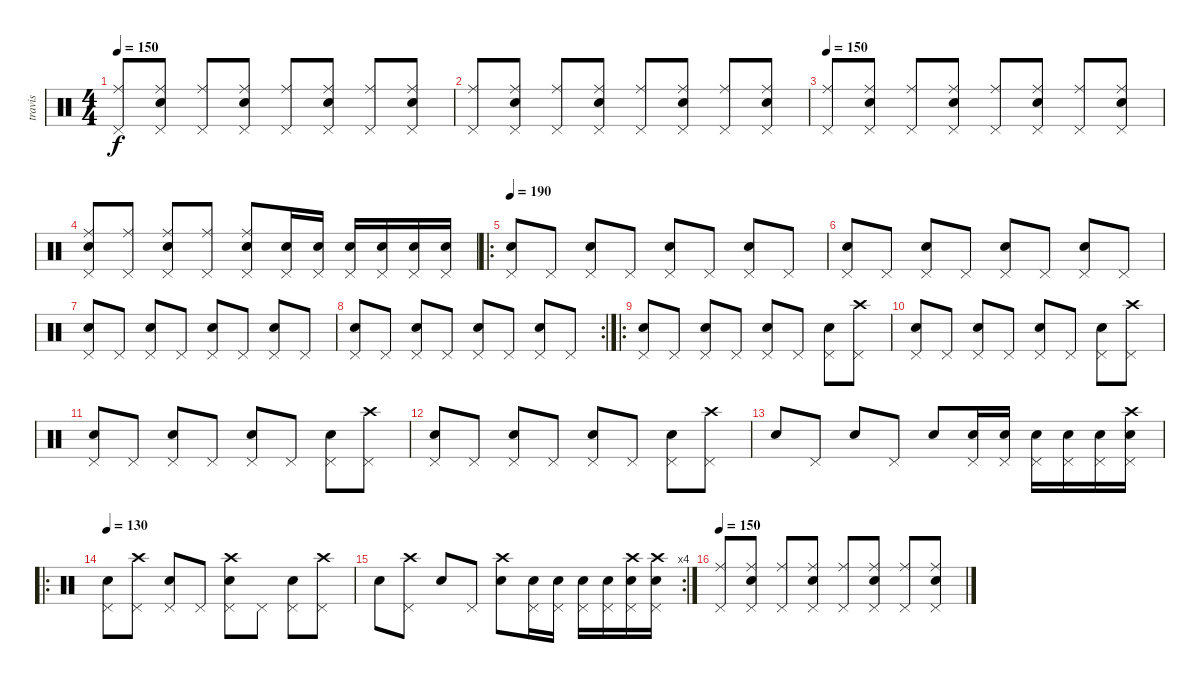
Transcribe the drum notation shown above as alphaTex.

\track ("travis" "travis") {instrument percussion}
\staff {score}
\articulation defaults
\ts (4 4)
\tempo 150
\clef neutral
\ks c
("Pedal Hi-Hat (hit)" "Ride (middle)").8{dy f} ("Pedal Hi-Hat (hit)" "Ride (middle)" "Electric Snare (hit)").8 ("Pedal Hi-Hat (hit)" "Ride (middle)").8 ("Pedal Hi-Hat (hit)" "Ride (middle)" "Electric Snare (hit)").8 ("Pedal Hi-Hat (hit)" "Ride (middle)").8 ("Pedal Hi-Hat (hit)" "Ride (middle)" "Electric Snare (hit)").8 ("Pedal Hi-Hat (hit)" "Ride (middle)").8 ("Pedal Hi-Hat (hit)" "Ride (middle)" "Electric Snare (hit)").8 |
("Pedal Hi-Hat (hit)" "Ride (middle)").8 ("Pedal Hi-Hat (hit)" "Ride (middle)" "Electric Snare (hit)").8 ("Pedal Hi-Hat (hit)" "Ride (middle)").8 ("Pedal Hi-Hat (hit)" "Ride (middle)" "Electric Snare (hit)").8 ("Pedal Hi-Hat (hit)" "Ride (middle)").8 ("Pedal Hi-Hat (hit)" "Ride (middle)" "Electric Snare (hit)").8 ("Pedal Hi-Hat (hit)" "Ride (middle)").8 ("Pedal Hi-Hat (hit)" "Ride (middle)" "Electric Snare (hit)").8 |
\tempo 150
("Pedal Hi-Hat (hit)" "Ride (middle)").8 ("Pedal Hi-Hat (hit)" "Ride (middle)" "Electric Snare (hit)").8 ("Pedal Hi-Hat (hit)" "Ride (middle)").8 ("Pedal Hi-Hat (hit)" "Ride (middle)" "Electric Snare (hit)").8 ("Pedal Hi-Hat (hit)" "Ride (middle)").8 ("Pedal Hi-Hat (hit)" "Ride (middle)" "Electric Snare (hit)").8 ("Pedal Hi-Hat (hit)" "Ride (middle)").8 ("Pedal Hi-Hat (hit)" "Ride (middle)" "Electric Snare (hit)").8 |
("Pedal Hi-Hat (hit)" "Ride (middle)" "Electric Snare (hit)").8 ("Pedal Hi-Hat (hit)" "Ride (middle)").8 ("Pedal Hi-Hat (hit)" "Ride (middle)" "Electric Snare (hit)").8 ("Pedal Hi-Hat (hit)" "Ride (middle)").8 ("Pedal Hi-Hat (hit)" "Ride (middle)" "Electric Snare (hit)").8 ("Pedal Hi-Hat (hit)" "Electric Snare (hit)").16 ("Pedal Hi-Hat (hit)" "Snare (hit) 2").16 ("Pedal Hi-Hat (hit)" "Electric Snare (hit)").16 ("Pedal Hi-Hat (hit)" "Snare (hit) 2").16 ("Pedal Hi-Hat (hit)" "Electric Snare (hit)").16 ("Pedal Hi-Hat (hit)" "Snare (hit) 2").16 |
\ro
\tempo 190
("Pedal Hi-Hat (hit)" "Electric Snare (hit)").8 "Pedal Hi-Hat (hit)".8 ("Pedal Hi-Hat (hit)" "Electric Snare (hit)").8 "Pedal Hi-Hat (hit)".8 ("Pedal Hi-Hat (hit)" "Electric Snare (hit)").8 "Pedal Hi-Hat (hit)".8 ("Pedal Hi-Hat (hit)" "Electric Snare (hit)").8 "Pedal Hi-Hat (hit)".8 |
("Pedal Hi-Hat (hit)" "Electric Snare (hit)").8 "Pedal Hi-Hat (hit)".8 ("Pedal Hi-Hat (hit)" "Electric Snare (hit)").8 "Pedal Hi-Hat (hit)".8 ("Pedal Hi-Hat (hit)" "Electric Snare (hit)").8 "Pedal Hi-Hat (hit)".8 ("Pedal Hi-Hat (hit)" "Electric Snare (hit)").8 "Pedal Hi-Hat (hit)".8 |
("Pedal Hi-Hat (hit)" "Electric Snare (hit)").8 "Pedal Hi-Hat (hit)".8 ("Pedal Hi-Hat (hit)" "Electric Snare (hit)").8 "Pedal Hi-Hat (hit)".8 ("Pedal Hi-Hat (hit)" "Electric Snare (hit)").8 "Pedal Hi-Hat (hit)".8 ("Pedal Hi-Hat (hit)" "Electric Snare (hit)").8 "Pedal Hi-Hat (hit)".8 |
\rc 2
("Pedal Hi-Hat (hit)" "Electric Snare (hit)").8 "Pedal Hi-Hat (hit)".8 ("Pedal Hi-Hat (hit)" "Electric Snare (hit)").8 "Pedal Hi-Hat (hit)".8 ("Pedal Hi-Hat (hit)" "Electric Snare (hit)").8 "Pedal Hi-Hat (hit)".8 ("Pedal Hi-Hat (hit)" "Electric Snare (hit)").8 "Pedal Hi-Hat (hit)".8 |
\ro
("Pedal Hi-Hat (hit)" "Electric Snare (hit)").8 "Pedal Hi-Hat (hit)".8 ("Pedal Hi-Hat (hit)" "Electric Snare (hit)").8 "Pedal Hi-Hat (hit)".8 ("Pedal Hi-Hat (hit)" "Electric Snare (hit)").8 "Pedal Hi-Hat (hit)".8 ("Pedal Hi-Hat (hit)" "Electric Snare (hit)").8 ("Pedal Hi-Hat (hit)" "Crash high (hit)").8 |
("Pedal Hi-Hat (hit)" "Electric Snare (hit)").8 "Pedal Hi-Hat (hit)".8 ("Pedal Hi-Hat (hit)" "Electric Snare (hit)").8 "Pedal Hi-Hat (hit)".8 ("Pedal Hi-Hat (hit)" "Electric Snare (hit)").8 "Pedal Hi-Hat (hit)".8 ("Pedal Hi-Hat (hit)" "Electric Snare (hit)").8 ("Pedal Hi-Hat (hit)" "Crash high (hit)").8 |
("Pedal Hi-Hat (hit)" "Electric Snare (hit)").8 "Pedal Hi-Hat (hit)".8 ("Pedal Hi-Hat (hit)" "Electric Snare (hit)").8 "Pedal Hi-Hat (hit)".8 ("Pedal Hi-Hat (hit)" "Electric Snare (hit)").8 "Pedal Hi-Hat (hit)".8 ("Pedal Hi-Hat (hit)" "Electric Snare (hit)").8 ("Pedal Hi-Hat (hit)" "Crash high (hit)").8 |
("Pedal Hi-Hat (hit)" "Electric Snare (hit)").8 "Pedal Hi-Hat (hit)".8 ("Pedal Hi-Hat (hit)" "Electric Snare (hit)").8 "Pedal Hi-Hat (hit)".8 ("Pedal Hi-Hat (hit)" "Electric Snare (hit)").8 "Pedal Hi-Hat (hit)".8 ("Pedal Hi-Hat (hit)" "Electric Snare (hit)").8 ("Pedal Hi-Hat (hit)" "Crash high (hit)").8 |
"Electric Snare (hit)".8 "Pedal Hi-Hat (hit)".8 "Electric Snare (hit)".8 "Pedal Hi-Hat (hit)".8 "Electric Snare (hit)".8 ("Pedal Hi-Hat (hit)" "Snare (hit) 2").16 ("Pedal Hi-Hat (hit)" "Electric Snare (hit)").16 ("Pedal Hi-Hat (hit)" "Snare (hit) 2").16 ("Pedal Hi-Hat (hit)" "Electric Snare (hit)").16 ("Pedal Hi-Hat (hit)" "Snare (hit) 2").16 ("Pedal Hi-Hat (hit)" "Crash high (hit)" "Electric Snare (hit)").16 |
\ro
\tempo 130
("Pedal Hi-Hat (hit)" "Electric Snare (hit)").8 ("Pedal Hi-Hat (hit)" "Crash high (hit)").8 ("Pedal Hi-Hat (hit)" "Electric Snare (hit)").8 "Pedal Hi-Hat (hit)".8 ("Pedal Hi-Hat (hit)" "Crash high (hit)" "Electric Snare (hit)").8 "Pedal Hi-Hat (hit)".8 ("Pedal Hi-Hat (hit)" "Electric Snare (hit)").8 ("Pedal Hi-Hat (hit)" "Crash high (hit)").8 |
\rc 4 "Electric Snare (hit)".8
("Pedal Hi-Hat (hit)" "Crash high (hit)").8 "Electric Snare (hit)".8 "Pedal Hi-Hat (hit)".8 ("Crash high (hit)" "Electric Snare (hit)").8 ("Pedal Hi-Hat (hit)" "Snare (hit) 2").16 ("Pedal Hi-Hat (hit)" "Electric Snare (hit)").16 ("Pedal Hi-Hat (hit)" "Snare (hit) 2").16 ("Pedal Hi-Hat (hit)" "Electric Snare (hit)").16 ("Pedal Hi-Hat (hit)" "Crash high (hit)" "Snare (hit) 2").16 ("Pedal Hi-Hat (hit)" "Crash high (hit)" "Electric Snare (hit)").16 |
\tempo 150
("Pedal Hi-Hat (hit)" "Ride (middle)").8 ("Pedal Hi-Hat (hit)" "Ride (middle)" "Electric Snare (hit)").8 ("Pedal Hi-Hat (hit)" "Ride (middle)").8 ("Pedal Hi-Hat (hit)" "Ride (middle)" "Electric Snare (hit)").8 ("Pedal Hi-Hat (hit)" "Ride (middle)").8 ("Pedal Hi-Hat (hit)" "Ride (middle)" "Electric Snare (hit)").8 ("Pedal Hi-Hat (hit)" "Ride (middle)").8 ("Pedal Hi-Hat (hit)" "Ride (middle)" "Electric Snare (hit)").8
